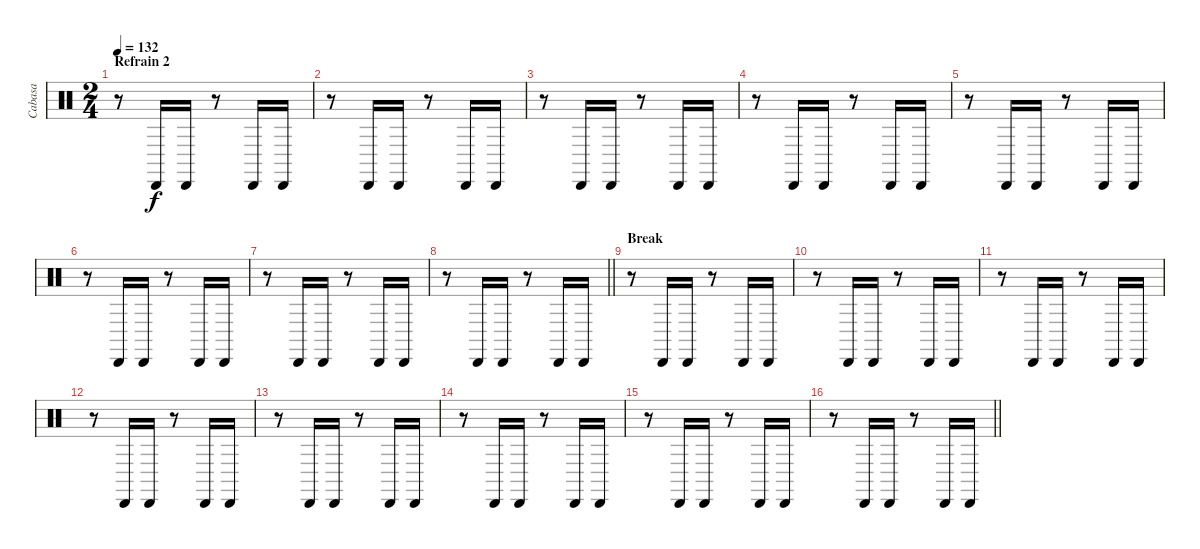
\track ("Cabasa" "Cabasa") {instrument percussion}
\staff {score}
\articulation defaults
\ts (2 4)
\section ("" "Refrain 2")
\tempo 132
\clef neutral
\ks c
r.8{dy f} "Cabasa (hit)".16 "Cabasa (hit)".16 r.8 "Cabasa (hit)".16 "Cabasa (hit)".16 |
r.8 "Cabasa (hit)".16 "Cabasa (hit)".16 r.8 "Cabasa (hit)".16 "Cabasa (hit)".16 |
r.8 "Cabasa (hit)".16 "Cabasa (hit)".16 r.8 "Cabasa (hit)".16 "Cabasa (hit)".16 |
r.8 "Cabasa (hit)".16 "Cabasa (hit)".16 r.8 "Cabasa (hit)".16 "Cabasa (hit)".16 |
r.8 "Cabasa (hit)".16 "Cabasa (hit)".16 r.8 "Cabasa (hit)".16 "Cabasa (hit)".16 |
r.8 "Cabasa (hit)".16 "Cabasa (hit)".16 r.8 "Cabasa (hit)".16 "Cabasa (hit)".16 |
r.8 "Cabasa (hit)".16 "Cabasa (hit)".16 r.8 "Cabasa (hit)".16 "Cabasa (hit)".16 |
\barLineRight lightlight
r.8 "Cabasa (hit)".16 "Cabasa (hit)".16 r.8 "Cabasa (hit)".16 "Cabasa (hit)".16 |
\section ("" "Break")
r.8 "Cabasa (hit)".16 "Cabasa (hit)".16 r.8 "Cabasa (hit)".16 "Cabasa (hit)".16 |
r.8 "Cabasa (hit)".16 "Cabasa (hit)".16 r.8 "Cabasa (hit)".16 "Cabasa (hit)".16 |
r.8 "Cabasa (hit)".16 "Cabasa (hit)".16 r.8 "Cabasa (hit)".16 "Cabasa (hit)".16 |
r.8 "Cabasa (hit)".16 "Cabasa (hit)".16 r.8 "Cabasa (hit)".16 "Cabasa (hit)".16 |
r.8 "Cabasa (hit)".16 "Cabasa (hit)".16 r.8 "Cabasa (hit)".16 "Cabasa (hit)".16 |
r.8 "Cabasa (hit)".16 "Cabasa (hit)".16 r.8 "Cabasa (hit)".16 "Cabasa (hit)".16 |
r.8 "Cabasa (hit)".16 "Cabasa (hit)".16 r.8 "Cabasa (hit)".16 "Cabasa (hit)".16 |
\barLineRight lightlight
r.8 "Cabasa (hit)".16 "Cabasa (hit)".16 r.8 "Cabasa (hit)".16 "Cabasa (hit)".16
